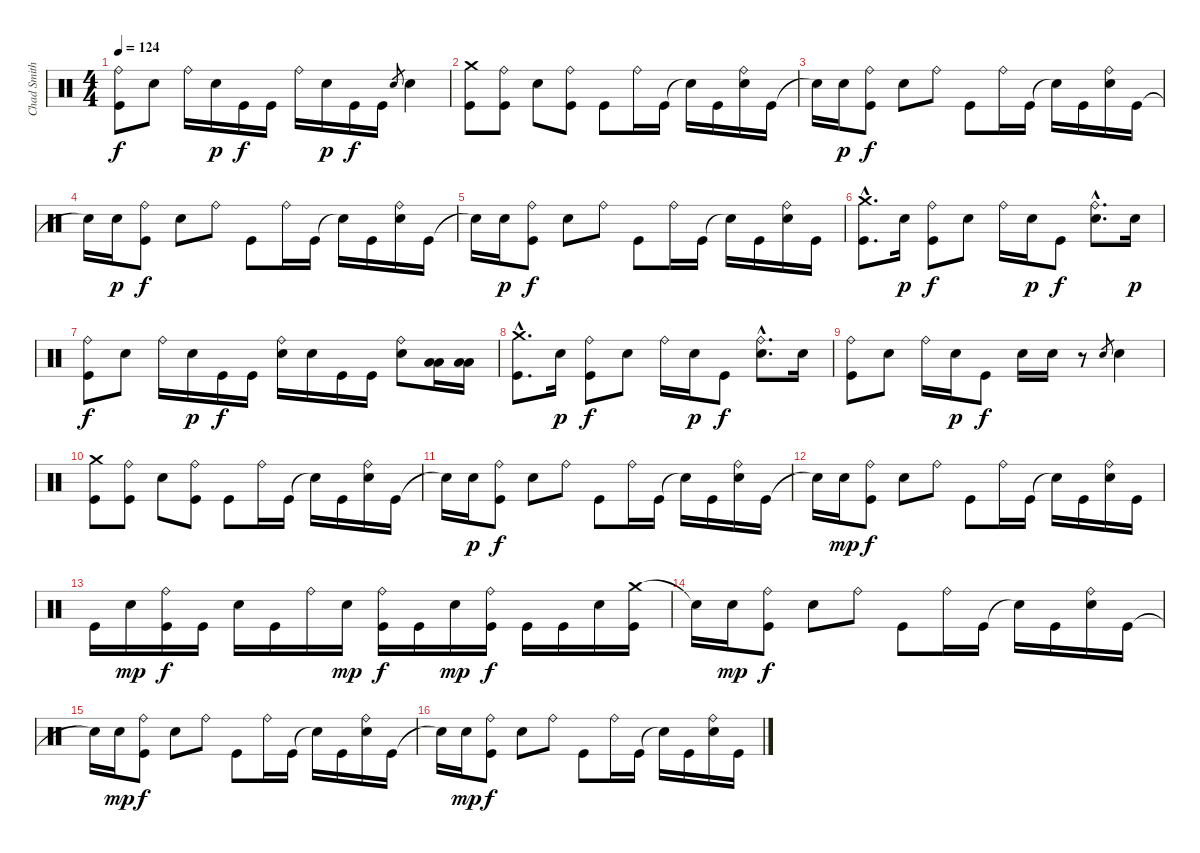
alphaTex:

\track ("Chad Smith" "Chad Smith") {instrument percussion}
\staff {score}
\articulation defaults
\ts (4 4)
\tempo 124
\clef neutral
\ks c
("Ride (bell)" "Kick (hit)").8{dy f} "Electric Snare (hit)".8 "Ride (bell)".16 "Electric Snare (hit)".16{dy p} "Kick (hit)".16{dy f} "Kick (hit)".16 "Ride (bell)".16 "Electric Snare (hit)".16{dy p} "Kick (hit)".16{dy f} "Kick (hit)".16 "Electric Snare (hit)".8{gr} "Electric Snare (hit)".4 |
("Crash medium (hit)" "Kick (hit)").8 ("Ride (bell)" "Kick (hit)").8 "Electric Snare (hit)".8 ("Ride (bell)" "Kick (hit)").8 "Kick (hit)".8 "Ride (bell)".16 "Kick (hit)".16 "Snare (hit)"{t}.16 "Kick (hit)".16 ("Ride (bell)" "Electric Snare (hit)").16 "Kick (hit)".16 |
"Snare (hit)"{t}.16 "Electric Snare (hit)".16{dy p} ("Ride (bell)" "Kick (hit)").8{dy f} "Electric Snare (hit)".8 "Ride (bell)".8 "Kick (hit)".8 "Ride (bell)".16 "Kick (hit)".16 "Snare (hit)"{t}.16 "Kick (hit)".16 ("Ride (bell)" "Electric Snare (hit)").16 "Kick (hit)".16 |
"Snare (hit)"{t}.16 "Electric Snare (hit)".16{dy p} ("Ride (bell)" "Kick (hit)").8{dy f} "Electric Snare (hit)".8 "Ride (bell)".8 "Kick (hit)".8 "Ride (bell)".16 "Kick (hit)".16 "Snare (hit)"{t}.16 "Kick (hit)".16 ("Ride (bell)" "Electric Snare (hit)").16 "Kick (hit)".16 |
"Snare (hit)"{t}.16 "Electric Snare (hit)".16{dy p} ("Ride (bell)" "Kick (hit)").8{dy f} "Electric Snare (hit)".8 "Ride (bell)".8 "Kick (hit)".8 "Ride (bell)".16 "Kick (hit)".16 "Snare (hit)"{t}.16 "Kick (hit)".16 ("Ride (bell)" "Electric Snare (hit)").16 "Kick (hit)".16 |
("Crash medium (hit)"{hac} "Kick (hit)"{hac}).8{d} "Electric Snare (hit)".16{dy p} ("Ride (bell)" "Kick (hit)").8{dy f} "Electric Snare (hit)".8 "Ride (bell)".16 "Electric Snare (hit)".16{dy p} "Kick (hit)".8{dy f} ("Ride (bell)"{hac} "Electric Snare (hit)"{hac}).8{d} "Electric Snare (hit)".16{dy p} |
("Ride (bell)" "Kick (hit)").8{dy f} "Electric Snare (hit)".8 "Ride (bell)".16 "Electric Snare (hit)".16{dy p} "Kick (hit)".16{dy f} "Kick (hit)".16 ("Ride (bell)" "Electric Snare (hit)").16 "Electric Snare (hit)".16 "Kick (hit)".16 "Kick (hit)".16 ("Ride (bell)" "Electric Snare (hit)").8 ("Low Tom (hit)" "Low Tom (hit)").16 ("Low Tom (hit)" "Low Tom (hit)").16 |
("Crash medium (hit)"{hac} "Kick (hit)"{hac}).8{d} "Electric Snare (hit)".16{dy p} ("Ride (bell)" "Kick (hit)").8{dy f} "Electric Snare (hit)".8 "Ride (bell)".16 "Electric Snare (hit)".16{dy p} "Kick (hit)".8{dy f} ("Ride (bell)"{hac} "Electric Snare (hit)"{hac}).8{d} "Electric Snare (hit)".16 |
("Ride (bell)" "Kick (hit)").8 "Electric Snare (hit)".8 "Ride (bell)".16 "Electric Snare (hit)".16{dy p} "Kick (hit)".8{dy f} "Electric Snare (hit)".16 "Electric Snare (hit)".16 r.8 "Electric Snare (hit)".8{gr} "Electric Snare (hit)".4 |
("Crash medium (hit)" "Kick (hit)").8 ("Ride (bell)" "Kick (hit)").8 "Electric Snare (hit)".8 ("Ride (bell)" "Kick (hit)").8 "Kick (hit)".8 "Ride (bell)".16 "Kick (hit)".16 "Snare (hit)"{t}.16 "Kick (hit)".16 ("Ride (bell)" "Electric Snare (hit)").16 "Kick (hit)".16 |
"Snare (hit)"{t}.16 "Electric Snare (hit)".16{dy p} ("Ride (bell)" "Kick (hit)").8{dy f} "Electric Snare (hit)".8 "Ride (bell)".8 "Kick (hit)".8 "Ride (bell)".16 "Kick (hit)".16 "Snare (hit)"{t}.16 "Kick (hit)".16 ("Ride (bell)" "Electric Snare (hit)").16 "Kick (hit)".16 |
"Snare (hit)"{t}.16 "Electric Snare (hit)".16{dy mp} ("Ride (bell)" "Kick (hit)").8{dy f} "Electric Snare (hit)".8 "Ride (bell)".8 "Kick (hit)".8 "Ride (bell)".16 "Kick (hit)".16 "Snare (hit)"{t}.16 "Kick (hit)".16 ("Ride (bell)" "Electric Snare (hit)").16 "Kick (hit)".16 |
"Kick (hit)".16 "Electric Snare (hit)".16{dy mp} ("Ride (bell)" "Kick (hit)").16{dy f} "Kick (hit)".16 "Electric Snare (hit)".16 "Kick (hit)".16 "Ride (bell)".16 "Electric Snare (hit)".16{dy mp} ("Ride (bell)" "Kick (hit)").16{dy f} "Kick (hit)".16 "Electric Snare (hit)".16{dy mp} ("Ride (bell)" "Kick (hit)").16{dy f} "Kick (hit)".16 "Kick (hit)".16 "Electric Snare (hit)".16 ("Crash medium (hit)" "Kick (hit)").16 |
"Snare (hit)"{t}.16 "Electric Snare (hit)".16{dy mp} ("Ride (bell)" "Kick (hit)").8{dy f} "Electric Snare (hit)".8 "Ride (bell)".8 "Kick (hit)".8 "Ride (bell)".16 "Kick (hit)".16 "Snare (hit)"{t}.16 "Kick (hit)".16 ("Ride (bell)" "Electric Snare (hit)").16 "Kick (hit)".16 |
"Snare (hit)"{t}.16 "Electric Snare (hit)".16{dy mp} ("Ride (bell)" "Kick (hit)").8{dy f} "Electric Snare (hit)".8 "Ride (bell)".8 "Kick (hit)".8 "Ride (bell)".16 "Kick (hit)".16 "Snare (hit)"{t}.16 "Kick (hit)".16 ("Ride (bell)" "Electric Snare (hit)").16 "Kick (hit)".16 |
"Snare (hit)"{t}.16 "Electric Snare (hit)".16{dy mp} ("Ride (bell)" "Kick (hit)").8{dy f} "Electric Snare (hit)".8 "Ride (bell)".8 "Kick (hit)".8 "Ride (bell)".16 "Kick (hit)".16 "Snare (hit)"{t}.16 "Kick (hit)".16 ("Ride (bell)" "Electric Snare (hit)").16 "Kick (hit)".16
